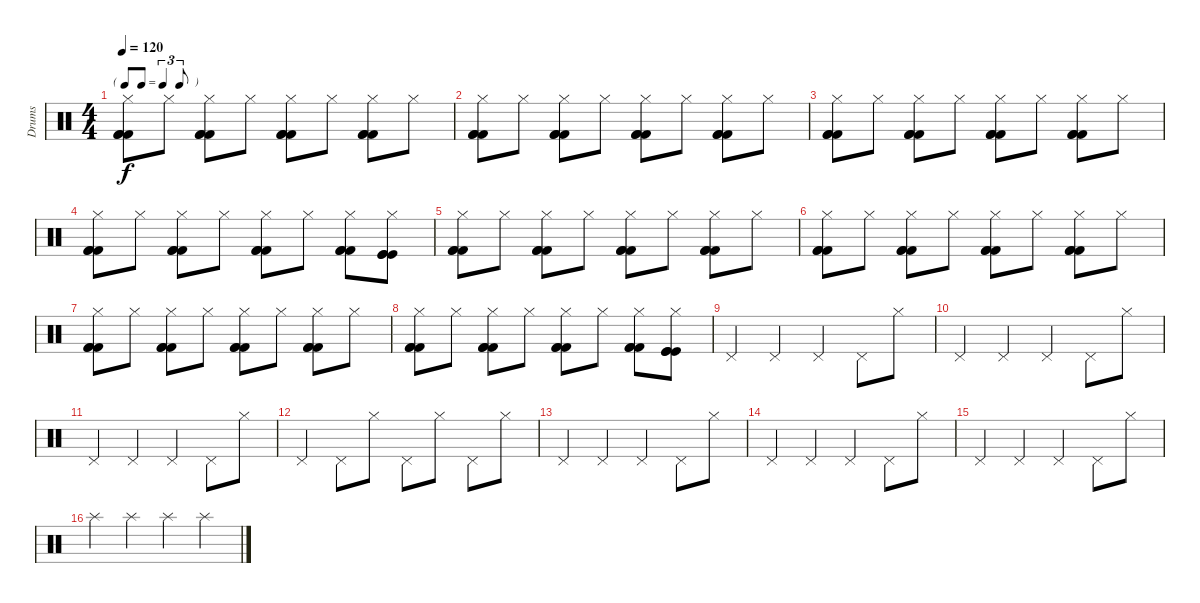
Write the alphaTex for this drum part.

\track ("Drums" "Drums") {instrument percussion}
\staff {score}
\articulation defaults
\ts (4 4)
\tf triplet8th
\tempo 120
\clef neutral
\ks c
("Hi-Hat (closed)" "Kick (hit) 2" "Kick (hit) 2" "Kick (hit) 2").8{dy f} "Hi-Hat (closed)".8 ("Hi-Hat (closed)" "Kick (hit) 2" "Kick (hit) 2" "Kick (hit) 2").8 "Hi-Hat (closed)".8 ("Hi-Hat (closed)" "Kick (hit) 2" "Kick (hit) 2" "Kick (hit) 2").8 "Hi-Hat (closed)".8 ("Hi-Hat (closed)" "Kick (hit) 2" "Kick (hit) 2" "Kick (hit) 2").8 "Hi-Hat (closed)".8 |
("Hi-Hat (closed)" "Kick (hit) 2" "Kick (hit) 2" "Kick (hit) 2").8 "Hi-Hat (closed)".8 ("Hi-Hat (closed)" "Kick (hit) 2" "Kick (hit) 2" "Kick (hit) 2").8 "Hi-Hat (closed)".8 ("Hi-Hat (closed)" "Kick (hit) 2" "Kick (hit) 2" "Kick (hit) 2").8 "Hi-Hat (closed)".8 ("Hi-Hat (closed)" "Kick (hit) 2" "Kick (hit) 2" "Kick (hit) 2").8 "Hi-Hat (closed)".8 |
("Hi-Hat (closed)" "Kick (hit) 2" "Kick (hit) 2" "Kick (hit) 2").8 "Hi-Hat (closed)".8 ("Hi-Hat (closed)" "Kick (hit) 2" "Kick (hit) 2" "Kick (hit) 2").8 "Hi-Hat (closed)".8 ("Hi-Hat (closed)" "Kick (hit) 2" "Kick (hit) 2" "Kick (hit) 2").8 "Hi-Hat (closed)".8 ("Hi-Hat (closed)" "Kick (hit) 2" "Kick (hit) 2" "Kick (hit) 2").8 "Hi-Hat (closed)".8 |
("Hi-Hat (closed)" "Kick (hit) 2" "Kick (hit) 2" "Kick (hit) 2").8 "Hi-Hat (closed)".8 ("Hi-Hat (closed)" "Kick (hit) 2" "Kick (hit) 2" "Kick (hit) 2").8 "Hi-Hat (closed)".8 ("Hi-Hat (closed)" "Kick (hit) 2" "Kick (hit) 2" "Kick (hit) 2").8 "Hi-Hat (closed)".8 ("Hi-Hat (closed)" "Kick (hit) 2" "Kick (hit) 2" "Kick (hit) 2").8 ("Hi-Hat (closed)" "Kick (hit)" "Kick (hit)" "Kick (hit)").8 |
("Hi-Hat (closed)" "Kick (hit) 2" "Kick (hit) 2" "Kick (hit) 2").8 "Hi-Hat (closed)".8 ("Hi-Hat (closed)" "Kick (hit) 2" "Kick (hit) 2" "Kick (hit) 2").8 "Hi-Hat (closed)".8 ("Hi-Hat (closed)" "Kick (hit) 2" "Kick (hit) 2" "Kick (hit) 2").8 "Hi-Hat (closed)".8 ("Hi-Hat (closed)" "Kick (hit) 2" "Kick (hit) 2" "Kick (hit) 2").8 "Hi-Hat (closed)".8 |
("Hi-Hat (closed)" "Kick (hit) 2" "Kick (hit) 2" "Kick (hit) 2").8 "Hi-Hat (closed)".8 ("Hi-Hat (closed)" "Kick (hit) 2" "Kick (hit) 2" "Kick (hit) 2").8 "Hi-Hat (closed)".8 ("Hi-Hat (closed)" "Kick (hit) 2" "Kick (hit) 2" "Kick (hit) 2").8 "Hi-Hat (closed)".8 ("Hi-Hat (closed)" "Kick (hit) 2" "Kick (hit) 2" "Kick (hit) 2").8 "Hi-Hat (closed)".8 |
("Hi-Hat (closed)" "Kick (hit) 2" "Kick (hit) 2" "Kick (hit) 2").8 "Hi-Hat (closed)".8 ("Hi-Hat (closed)" "Kick (hit) 2" "Kick (hit) 2" "Kick (hit) 2").8 "Hi-Hat (closed)".8 ("Hi-Hat (closed)" "Kick (hit) 2" "Kick (hit) 2" "Kick (hit) 2").8 "Hi-Hat (closed)".8 ("Hi-Hat (closed)" "Kick (hit) 2" "Kick (hit) 2" "Kick (hit) 2").8 "Hi-Hat (closed)".8 |
("Hi-Hat (closed)" "Kick (hit) 2" "Kick (hit) 2" "Kick (hit) 2").8 "Hi-Hat (closed)".8 ("Hi-Hat (closed)" "Kick (hit) 2" "Kick (hit) 2" "Kick (hit) 2").8 "Hi-Hat (closed)".8 ("Hi-Hat (closed)" "Kick (hit) 2" "Kick (hit) 2" "Kick (hit) 2").8 "Hi-Hat (closed)".8 ("Hi-Hat (closed)" "Kick (hit) 2" "Kick (hit) 2" "Kick (hit) 2").8 ("Hi-Hat (closed)" "Kick (hit)" "Kick (hit)" "Kick (hit)").8 |
"Pedal Hi-Hat (hit)".4 "Pedal Hi-Hat (hit)".4 "Pedal Hi-Hat (hit)".4 "Pedal Hi-Hat (hit)".8 "Hi-Hat (closed)".8 |
"Pedal Hi-Hat (hit)".4 "Pedal Hi-Hat (hit)".4 "Pedal Hi-Hat (hit)".4 "Pedal Hi-Hat (hit)".8 "Hi-Hat (closed)".8 |
"Pedal Hi-Hat (hit)".4 "Pedal Hi-Hat (hit)".4 "Pedal Hi-Hat (hit)".4 "Pedal Hi-Hat (hit)".8 "Hi-Hat (closed)".8 |
"Pedal Hi-Hat (hit)".4 "Pedal Hi-Hat (hit)".8 "Hi-Hat (closed)".8 "Pedal Hi-Hat (hit)".8 "Hi-Hat (closed)".8 "Pedal Hi-Hat (hit)".8 "Hi-Hat (closed)".8 |
"Pedal Hi-Hat (hit)".4 "Pedal Hi-Hat (hit)".4 "Pedal Hi-Hat (hit)".4 "Pedal Hi-Hat (hit)".8 "Hi-Hat (closed)".8 |
"Pedal Hi-Hat (hit)".4 "Pedal Hi-Hat (hit)".4 "Pedal Hi-Hat (hit)".4 "Pedal Hi-Hat (hit)".8 "Hi-Hat (closed)".8 |
"Pedal Hi-Hat (hit)".4 "Pedal Hi-Hat (hit)".4 "Pedal Hi-Hat (hit)".4 "Pedal Hi-Hat (hit)".8 "Hi-Hat (closed)".8 |
"Splash (hit)".4 "Splash (hit)".4 "Splash (hit)".4 "Splash (hit)".4
